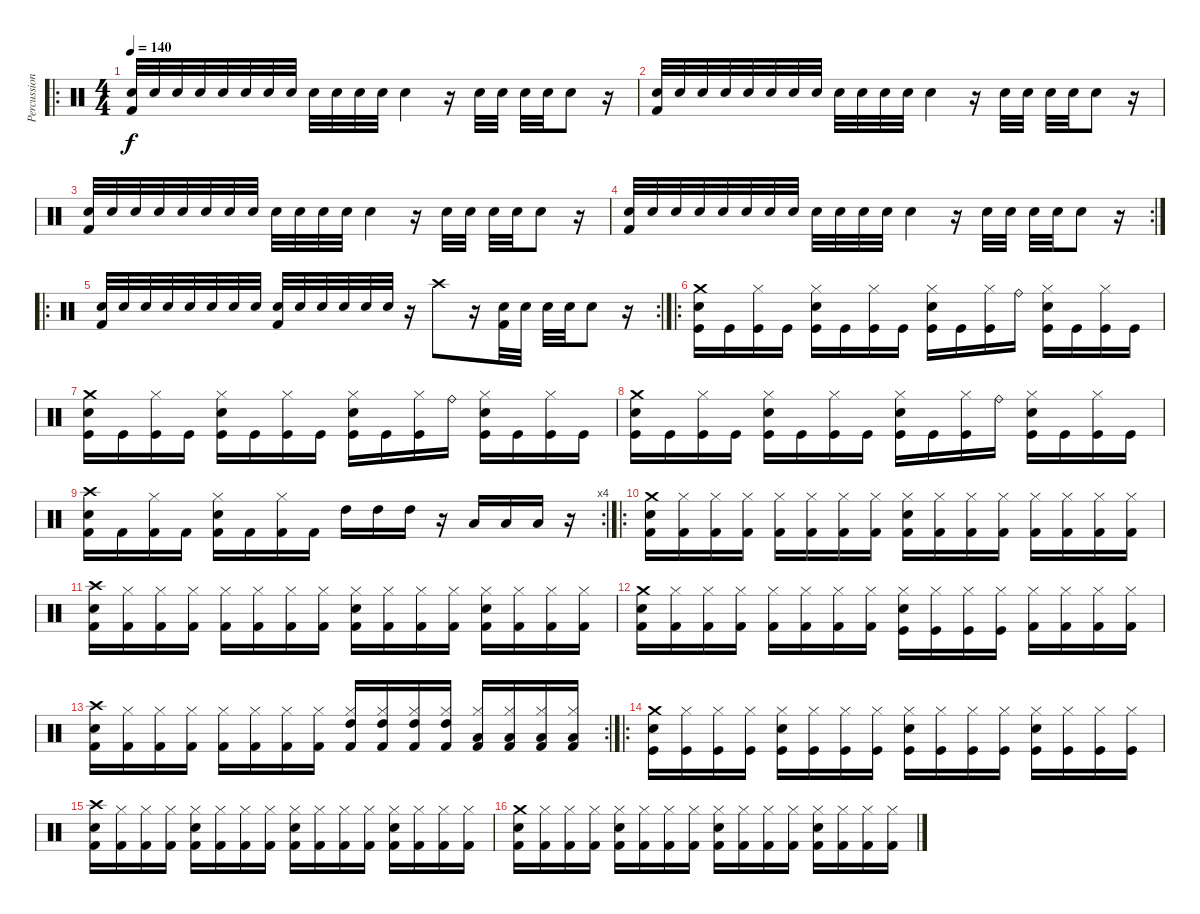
\track ("Percussion" "Percussion") {instrument percussion}
\staff {score}
\articulation defaults
\ro
\ts (4 4)
\tempo 140
\clef neutral
\ks c
("Snare (hit) 2" "Kick (hit) 2").32{dy f} "Snare (hit) 2".32 "Snare (hit) 2".32 "Snare (hit) 2".32 "Snare (hit) 2".32 "Snare (hit) 2".32 "Snare (hit) 2".32 "Snare (hit) 2".32 "Snare (hit) 2".32 "Snare (hit) 2".32 "Snare (hit) 2".32 "Snare (hit) 2".32 "Snare (hit) 2".4 r.16 "Snare (hit) 2".32 "Snare (hit) 2".32 "Snare (hit) 2".32 "Snare (hit) 2".32 "Snare (hit) 2".8 r.16 |
("Snare (hit) 2" "Kick (hit) 2").32 "Snare (hit) 2".32 "Snare (hit) 2".32 "Snare (hit) 2".32 "Snare (hit) 2".32 "Snare (hit) 2".32 "Snare (hit) 2".32 "Snare (hit) 2".32 "Snare (hit) 2".32 "Snare (hit) 2".32 "Snare (hit) 2".32 "Snare (hit) 2".32 "Snare (hit) 2".4 r.16 "Snare (hit) 2".32 "Snare (hit) 2".32 "Snare (hit) 2".32 "Snare (hit) 2".32 "Snare (hit) 2".8 r.16 |
("Snare (hit) 2" "Kick (hit) 2").32 "Snare (hit) 2".32 "Snare (hit) 2".32 "Snare (hit) 2".32 "Snare (hit) 2".32 "Snare (hit) 2".32 "Snare (hit) 2".32 "Snare (hit) 2".32 "Snare (hit) 2".32 "Snare (hit) 2".32 "Snare (hit) 2".32 "Snare (hit) 2".32 "Snare (hit) 2".4 r.16 "Snare (hit) 2".32 "Snare (hit) 2".32 "Snare (hit) 2".32 "Snare (hit) 2".32 "Snare (hit) 2".8 r.16 |
\rc 2
("Snare (hit) 2" "Kick (hit) 2").32 "Snare (hit) 2".32 "Snare (hit) 2".32 "Snare (hit) 2".32 "Snare (hit) 2".32 "Snare (hit) 2".32 "Snare (hit) 2".32 "Snare (hit) 2".32 "Snare (hit) 2".32 "Snare (hit) 2".32 "Snare (hit) 2".32 "Snare (hit) 2".32 "Snare (hit) 2".4 r.16 "Snare (hit) 2".32 "Snare (hit) 2".32 "Snare (hit) 2".32 "Snare (hit) 2".32 "Snare (hit) 2".8 r.16 |
\ro
\rc 2
("Snare (hit) 2" "Kick (hit) 2").32 "Snare (hit) 2".32 "Snare (hit) 2".32 "Snare (hit) 2".32 "Snare (hit) 2".32 "Snare (hit) 2".32 "Snare (hit) 2".32 "Snare (hit) 2".32 ("Snare (hit) 2" "Kick (hit) 2").32 "Snare (hit) 2".32 "Snare (hit) 2".32 "Snare (hit) 2".32 "Snare (hit) 2".32 "Snare (hit) 2".32 r.16 "Crash high (hit)".8 r.16 ("Snare (hit) 2" "Kick (hit) 2").32 "Snare (hit) 2".32 "Snare (hit) 2".32 "Snare (hit) 2".32 "Snare (hit) 2".8 r.16 |
\ro
("Crash medium (hit)" "Snare (hit) 2" "Kick (hit)").16 "Kick (hit)".16 ("Hi-Hat (closed)" "Kick (hit)").16 "Kick (hit)".16 ("Hi-Hat (closed)" "Snare (hit) 2" "Kick (hit)").16 "Kick (hit)".16 ("Hi-Hat (closed)" "Kick (hit)").16 "Kick (hit)".16 ("Hi-Hat (closed)" "Snare (hit) 2" "Kick (hit)").16 "Kick (hit)".16 ("Hi-Hat (closed)" "Kick (hit)").16 "Ride (bell)".16 ("Hi-Hat (closed)" "Snare (hit) 2" "Kick (hit)").16 "Kick (hit)".16 ("Hi-Hat (closed)" "Kick (hit)").16 "Kick (hit)".16 |
("Crash medium (hit)" "Snare (hit) 2" "Kick (hit)").16 "Kick (hit)".16 ("Hi-Hat (closed)" "Kick (hit)").16 "Kick (hit)".16 ("Hi-Hat (closed)" "Snare (hit) 2" "Kick (hit)").16 "Kick (hit)".16 ("Hi-Hat (closed)" "Kick (hit)").16 "Kick (hit)".16 ("Hi-Hat (closed)" "Snare (hit) 2" "Kick (hit)").16 "Kick (hit)".16 ("Hi-Hat (closed)" "Kick (hit)").16 "Ride (bell)".16 ("Hi-Hat (closed)" "Snare (hit) 2" "Kick (hit)").16 "Kick (hit)".16 ("Hi-Hat (closed)" "Kick (hit)").16 "Kick (hit)".16 |
("Crash medium (hit)" "Snare (hit) 2" "Kick (hit)").16 "Kick (hit)".16 ("Hi-Hat (closed)" "Kick (hit)").16 "Kick (hit)".16 ("Hi-Hat (closed)" "Snare (hit) 2" "Kick (hit)").16 "Kick (hit)".16 ("Hi-Hat (closed)" "Kick (hit)").16 "Kick (hit)".16 ("Hi-Hat (closed)" "Snare (hit) 2" "Kick (hit)").16 "Kick (hit)".16 ("Hi-Hat (closed)" "Kick (hit)").16 "Ride (bell)".16 ("Hi-Hat (closed)" "Snare (hit) 2" "Kick (hit)").16 "Kick (hit)".16 ("Hi-Hat (closed)" "Kick (hit)").16 "Kick (hit)".16 |
\rc 4
("Crash high (hit)" "Snare (hit) 2" "Kick (hit) 2").16 "Kick (hit) 2".16 ("Hi-Hat (closed)" "Kick (hit) 2").16 "Kick (hit) 2".16 ("Hi-Hat (closed)" "Snare (hit) 2" "Kick (hit) 2").16 "Kick (hit) 2".16 ("Hi-Hat (closed)" "Kick (hit) 2").16 "Kick (hit) 2".16 "High Tom (hit)".16 "High Tom (hit)".16 "High Tom (hit)".16 r.16 "Low Tom (hit)".16 "Low Tom (hit)".16 "Low Tom (hit)".16 r.16 |
\ro
("Crash medium (hit)" "Snare (hit) 2" "Kick (hit) 2").16 ("Hi-Hat (closed)" "Kick (hit) 2").16 ("Hi-Hat (closed)" "Kick (hit) 2").16 ("Hi-Hat (closed)" "Kick (hit) 2").16 ("Hi-Hat (closed)" "Kick (hit) 2").16 ("Hi-Hat (closed)" "Kick (hit) 2").16 ("Hi-Hat (closed)" "Kick (hit) 2").16 ("Hi-Hat (closed)" "Kick (hit) 2").16 ("Hi-Hat (closed)" "Snare (hit) 2" "Kick (hit) 2").16 ("Hi-Hat (closed)" "Kick (hit) 2").16 ("Hi-Hat (closed)" "Kick (hit) 2").16 ("Hi-Hat (closed)" "Kick (hit) 2").16 ("Hi-Hat (closed)" "Kick (hit) 2").16 ("Hi-Hat (closed)" "Kick (hit) 2").16 ("Hi-Hat (closed)" "Kick (hit) 2").16 ("Hi-Hat (closed)" "Kick (hit) 2").16 |
("Crash high (hit)" "Snare (hit) 2" "Kick (hit) 2").16 ("Hi-Hat (closed)" "Kick (hit) 2").16 ("Hi-Hat (closed)" "Kick (hit) 2").16 ("Hi-Hat (closed)" "Kick (hit) 2").16 ("Hi-Hat (closed)" "Kick (hit) 2").16 ("Hi-Hat (closed)" "Kick (hit) 2").16 ("Hi-Hat (closed)" "Kick (hit) 2").16 ("Hi-Hat (closed)" "Kick (hit) 2").16 ("Hi-Hat (closed)" "Snare (hit) 2" "Kick (hit) 2").16 ("Hi-Hat (closed)" "Kick (hit) 2").16 ("Hi-Hat (closed)" "Kick (hit) 2").16 ("Hi-Hat (closed)" "Kick (hit) 2").16 ("Hi-Hat (closed)" "Snare (hit) 2" "Kick (hit) 2").16 ("Hi-Hat (closed)" "Kick (hit) 2").16 ("Hi-Hat (closed)" "Kick (hit) 2").16 ("Hi-Hat (closed)" "Kick (hit) 2").16 |
("Crash medium (hit)" "Snare (hit) 2" "Kick (hit) 2").16 ("Hi-Hat (closed)" "Kick (hit) 2").16 ("Hi-Hat (closed)" "Kick (hit) 2").16 ("Hi-Hat (closed)" "Kick (hit) 2").16 ("Hi-Hat (closed)" "Kick (hit) 2").16 ("Hi-Hat (closed)" "Kick (hit) 2").16 ("Hi-Hat (closed)" "Kick (hit) 2").16 ("Hi-Hat (closed)" "Kick (hit) 2").16 ("Hi-Hat (closed)" "Snare (hit) 2" "Kick (hit)").16 ("Hi-Hat (closed)" "Kick (hit)").16 ("Hi-Hat (closed)" "Kick (hit)").16 ("Hi-Hat (closed)" "Kick (hit)").16 ("Hi-Hat (closed)" "Kick (hit) 2").16 ("Hi-Hat (closed)" "Kick (hit) 2").16 ("Hi-Hat (closed)" "Kick (hit) 2").16 ("Hi-Hat (closed)" "Kick (hit) 2").16 |
\rc 2
("Crash high (hit)" "Snare (hit) 2" "Kick (hit) 2").16 ("Hi-Hat (closed)" "Kick (hit) 2").16 ("Hi-Hat (closed)" "Kick (hit) 2").16 ("Hi-Hat (closed)" "Kick (hit) 2").16 ("Hi-Hat (closed)" "Kick (hit) 2").16 ("Hi-Hat (closed)" "Kick (hit) 2").16 ("Hi-Hat (closed)" "Kick (hit) 2").16 ("Hi-Hat (closed)" "Kick (hit) 2").16 ("Hi-Hat (closed)" "High Tom (hit)" "Kick (hit) 2").16 ("Hi-Hat (closed)" "High Tom (hit)" "Kick (hit) 2").16 ("Hi-Hat (closed)" "High Tom (hit)" "Kick (hit) 2").16 ("Hi-Hat (closed)" "High Tom (hit)" "Kick (hit) 2").16 ("Hi-Hat (closed)" "Low Tom (hit)" "Kick (hit) 2").16 ("Hi-Hat (closed)" "Low Tom (hit)" "Kick (hit) 2").16 ("Hi-Hat (closed)" "Low Tom (hit)" "Kick (hit) 2").16 ("Hi-Hat (closed)" "Low Tom (hit)" "Kick (hit) 2").16 |
\ro
("Crash medium (hit)" "Snare (hit) 2" "Kick (hit)").16 ("Hi-Hat (closed)" "Kick (hit)").16 ("Hi-Hat (closed)" "Kick (hit)").16 ("Hi-Hat (closed)" "Kick (hit)").16 ("Hi-Hat (closed)" "Snare (hit) 2" "Kick (hit)").16 ("Hi-Hat (closed)" "Kick (hit)").16 ("Hi-Hat (closed)" "Kick (hit)").16 ("Hi-Hat (closed)" "Kick (hit)").16 ("Hi-Hat (closed)" "Snare (hit) 2" "Kick (hit)").16 ("Hi-Hat (closed)" "Kick (hit)").16 ("Hi-Hat (closed)" "Kick (hit)").16 ("Hi-Hat (closed)" "Kick (hit)").16 ("Hi-Hat (closed)" "Snare (hit) 2" "Kick (hit)").16 ("Hi-Hat (closed)" "Kick (hit)").16 ("Hi-Hat (closed)" "Kick (hit)").16 ("Hi-Hat (closed)" "Kick (hit)").16 |
("Crash high (hit)" "Snare (hit) 2" "Kick (hit) 2").16 ("Hi-Hat (closed)" "Kick (hit) 2").16 ("Hi-Hat (closed)" "Kick (hit) 2").16 ("Hi-Hat (closed)" "Kick (hit) 2").16 ("Hi-Hat (closed)" "Snare (hit) 2" "Kick (hit) 2").16 ("Hi-Hat (closed)" "Kick (hit) 2").16 ("Hi-Hat (closed)" "Kick (hit) 2").16 ("Hi-Hat (closed)" "Kick (hit) 2").16 ("Hi-Hat (closed)" "Snare (hit) 2" "Kick (hit) 2").16 ("Hi-Hat (closed)" "Kick (hit) 2").16 ("Hi-Hat (closed)" "Kick (hit) 2").16 ("Hi-Hat (closed)" "Kick (hit) 2").16 ("Hi-Hat (closed)" "Snare (hit) 2" "Kick (hit) 2").16 ("Hi-Hat (closed)" "Kick (hit) 2").16 ("Hi-Hat (closed)" "Kick (hit) 2").16 ("Hi-Hat (closed)" "Kick (hit) 2").16 |
("Crash medium (hit)" "Snare (hit) 2" "Kick (hit) 2").16 ("Hi-Hat (closed)" "Kick (hit) 2").16 ("Hi-Hat (closed)" "Kick (hit) 2").16 ("Hi-Hat (closed)" "Kick (hit) 2").16 ("Hi-Hat (closed)" "Snare (hit) 2" "Kick (hit) 2").16 ("Hi-Hat (closed)" "Kick (hit) 2").16 ("Hi-Hat (closed)" "Kick (hit) 2").16 ("Hi-Hat (closed)" "Kick (hit) 2").16 ("Hi-Hat (closed)" "Snare (hit) 2" "Kick (hit) 2").16 ("Hi-Hat (closed)" "Kick (hit) 2").16 ("Hi-Hat (closed)" "Kick (hit) 2").16 ("Hi-Hat (closed)" "Kick (hit) 2").16 ("Hi-Hat (closed)" "Snare (hit) 2" "Kick (hit) 2").16 ("Hi-Hat (closed)" "Kick (hit) 2").16 ("Hi-Hat (closed)" "Kick (hit) 2").16 ("Hi-Hat (closed)" "Kick (hit) 2").16
